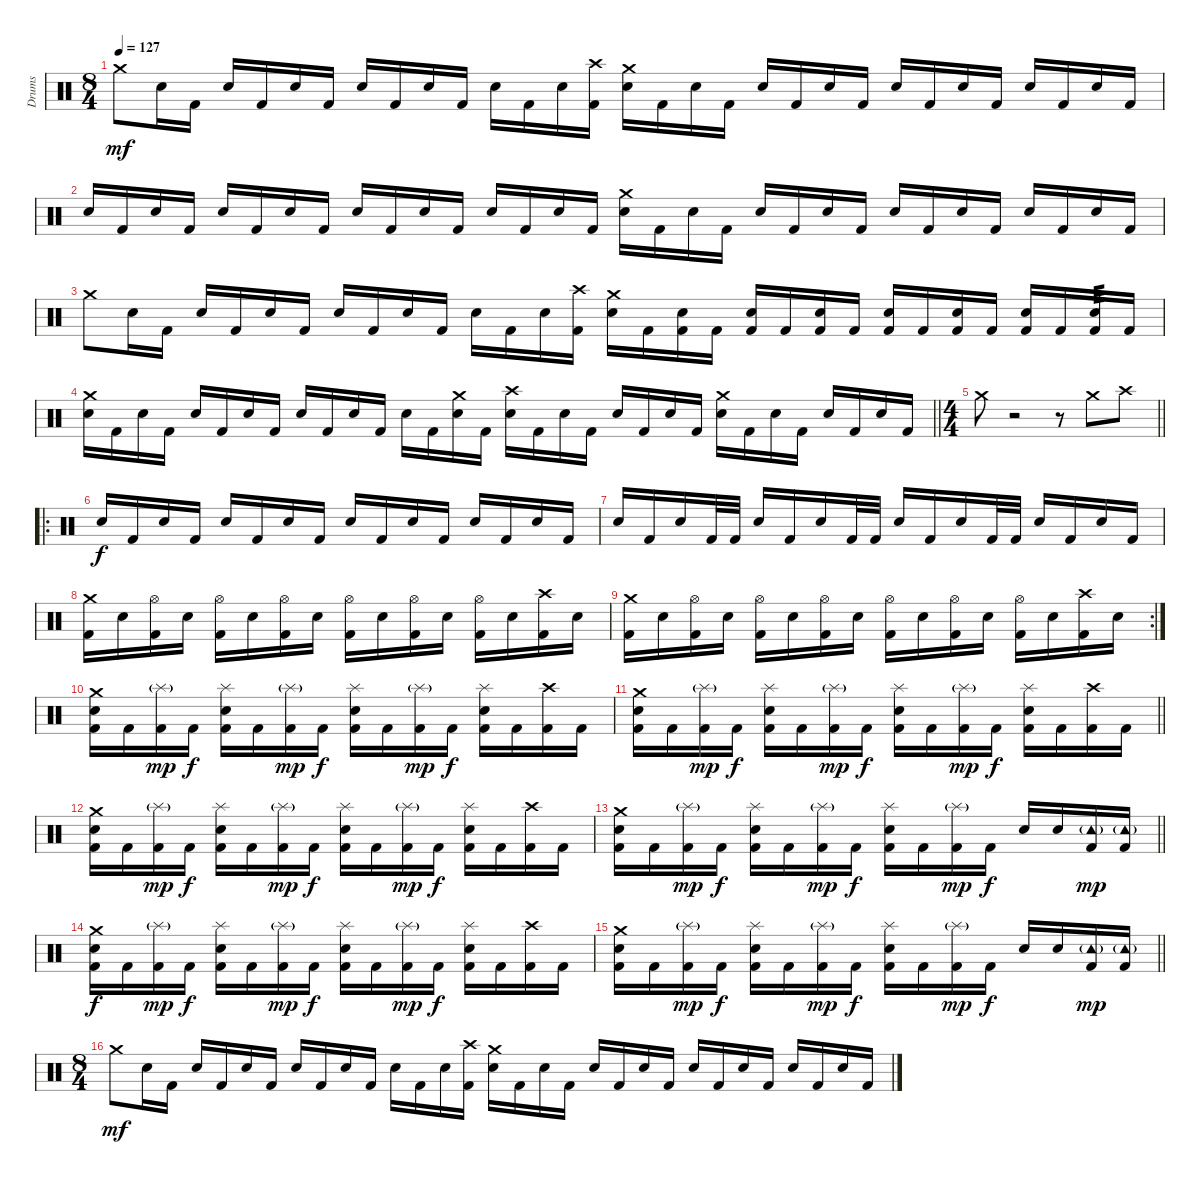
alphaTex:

\track ("Drums" "Drums") {instrument percussion}
\staff {score}
\articulation defaults
\ts (8 4)
\tempo 127
\clef neutral
\ks c "Crash medium (hit)".8{dy mf} "Electric Snare (hit)".16 "Kick (hit) 2".16 "Electric Snare (hit)".16 "Kick (hit) 2".16 "Electric Snare (hit)".16 "Kick (hit) 2".16 "Electric Snare (hit)".16 "Kick (hit) 2".16 "Electric Snare (hit)".16 "Kick (hit) 2".16 "Electric Snare (hit)".16 "Kick (hit) 2".16 "Electric Snare (hit)".16
("Crash high (hit)" "Kick (hit) 2").16 ("Crash medium (hit)" "Electric Snare (hit)").16 "Kick (hit) 2".16 "Electric Snare (hit)".16 "Kick (hit) 2".16 "Electric Snare (hit)".16 "Kick (hit) 2".16 "Electric Snare (hit)".16 "Kick (hit) 2".16 "Electric Snare (hit)".16 "Kick (hit) 2".16 "Electric Snare (hit)".16 "Kick (hit) 2".16 "Electric Snare (hit)".16 "Kick (hit) 2".16 "Electric Snare (hit)".16 "Kick (hit) 2".16 |
"Electric Snare (hit)".16 "Kick (hit) 2".16 "Electric Snare (hit)".16 "Kick (hit) 2".16 "Electric Snare (hit)".16 "Kick (hit) 2".16 "Electric Snare (hit)".16 "Kick (hit) 2".16 "Electric Snare (hit)".16 "Kick (hit) 2".16 "Electric Snare (hit)".16 "Kick (hit) 2".16 "Electric Snare (hit)".16 "Kick (hit) 2".16 "Electric Snare (hit)".16 "Kick (hit) 2".16 ("Crash medium (hit)" "Electric Snare (hit)").16 "Kick (hit) 2".16 "Electric Snare (hit)".16 "Kick (hit) 2".16 "Electric Snare (hit)".16 "Kick (hit) 2".16 "Electric Snare (hit)".16 "Kick (hit) 2".16 "Electric Snare (hit)".16 "Kick (hit) 2".16 "Electric Snare (hit)".16 "Kick (hit) 2".16 "Electric Snare (hit)".16 "Kick (hit) 2".16 "Electric Snare (hit)".16 "Kick (hit) 2".16 |
"Crash medium (hit)".8 "Electric Snare (hit)".16 "Kick (hit) 2".16 "Electric Snare (hit)".16 "Kick (hit) 2".16 "Electric Snare (hit)".16 "Kick (hit) 2".16 "Electric Snare (hit)".16 "Kick (hit) 2".16 "Electric Snare (hit)".16 "Kick (hit) 2".16 "Electric Snare (hit)".16 "Kick (hit) 2".16 "Electric Snare (hit)".16 ("Crash high (hit)" "Kick (hit) 2").16 ("Crash medium (hit)" "Electric Snare (hit)").16 "Kick (hit) 2".16 ("Electric Snare (hit)" "Kick (hit) 2").16 "Kick (hit) 2".16 ("Electric Snare (hit)" "Kick (hit) 2").16 "Kick (hit) 2".16 ("Electric Snare (hit)" "Kick (hit) 2").16 "Kick (hit) 2".16 ("Electric Snare (hit)" "Kick (hit) 2").16 "Kick (hit) 2".16 ("Electric Snare (hit)" "Kick (hit) 2").16 "Kick (hit) 2".16 ("Electric Snare (hit)" "Kick (hit) 2").16 "Kick (hit) 2".16 ("Electric Snare (hit)" "Kick (hit) 2").16{tp 3} "Kick (hit) 2".16 |
\barLineRight lightlight
("Crash medium (hit)" "Electric Snare (hit)").16 "Kick (hit) 2".16 "Electric Snare (hit)".16 "Kick (hit) 2".16 "Electric Snare (hit)".16 "Kick (hit) 2".16 "Electric Snare (hit)".16 "Kick (hit) 2".16 "Electric Snare (hit)".16 "Kick (hit) 2".16 "Electric Snare (hit)".16 "Kick (hit) 2".16 "Electric Snare (hit)".16 "Kick (hit) 2".16 ("Crash medium (hit)" "Electric Snare (hit)").16 "Kick (hit) 2".16 ("Crash high (hit)" "Electric Snare (hit)").16 "Kick (hit) 2".16 "Electric Snare (hit)".16 "Kick (hit) 2".16 "Electric Snare (hit)".16 "Kick (hit) 2".16 "Electric Snare (hit)".16 "Kick (hit) 2".16 ("Crash medium (hit)" "Electric Snare (hit)").16 "Kick (hit) 2".16 "Electric Snare (hit)".16 "Kick (hit) 2".16 "Electric Snare (hit)".16 "Kick (hit) 2".16 "Electric Snare (hit)".16 "Kick (hit) 2".16 |
\ts (4 4)
\barLineRight lightlight "Crash medium (hit)".8
r.2 r.8 "Crash medium (hit)".8 "Crash high (hit)".8 |
\ro "Electric Snare (hit)".16{dy f} "Kick (hit) 2".16 "Electric Snare (hit)".16 "Kick (hit) 2".16 "Electric Snare (hit)".16 "Kick (hit) 2".16 "Electric Snare (hit)".16 "Kick (hit) 2".16 "Electric Snare (hit)".16 "Kick (hit) 2".16 "Electric Snare (hit)".16 "Kick (hit) 2".16 "Electric Snare (hit)".16 "Kick (hit) 2".16 "Electric Snare (hit)".16 "Kick (hit) 2".16
|
"Electric Snare (hit)".16 "Kick (hit) 2".16 "Electric Snare (hit)".16 "Kick (hit) 2".32 "Kick (hit) 2".32 "Electric Snare (hit)".16 "Kick (hit) 2".16 "Electric Snare (hit)".16 "Kick (hit) 2".32 "Kick (hit) 2".32 "Electric Snare (hit)".16 "Kick (hit) 2".16 "Electric Snare (hit)".16 "Kick (hit) 2".32 "Kick (hit) 2".32 "Electric Snare (hit)".16 "Kick (hit) 2".16 "Electric Snare (hit)".16 "Kick (hit) 2".16 |
("Crash medium (hit)" "Kick (hit) 2").16 "Electric Snare (hit)".16 ("Hi-Hat (open)" "Kick (hit) 2").16 "Electric Snare (hit)".16 ("Hi-Hat (open)" "Kick (hit) 2").16 "Electric Snare (hit)".16 ("Hi-Hat (open)" "Kick (hit) 2").16 "Electric Snare (hit)".16 ("Hi-Hat (open)" "Kick (hit) 2").16 "Electric Snare (hit)".16 ("Hi-Hat (open)" "Kick (hit) 2").16 "Electric Snare (hit)".16 ("Hi-Hat (open)" "Kick (hit) 2").16 "Electric Snare (hit)".16 ("Crash high (hit)" "Kick (hit) 2").16 "Electric Snare (hit)".16 |
\rc 2
("Crash medium (hit)" "Kick (hit) 2").16 "Electric Snare (hit)".16 ("Hi-Hat (open)" "Kick (hit) 2").16 "Electric Snare (hit)".16 ("Hi-Hat (open)" "Kick (hit) 2").16 "Electric Snare (hit)".16 ("Hi-Hat (open)" "Kick (hit) 2").16 "Electric Snare (hit)".16 ("Hi-Hat (open)" "Kick (hit) 2").16 "Electric Snare (hit)".16 ("Hi-Hat (open)" "Kick (hit) 2").16 "Electric Snare (hit)".16 ("Hi-Hat (open)" "Kick (hit) 2").16 "Electric Snare (hit)".16 ("Crash high (hit)" "Kick (hit) 2").16 "Electric Snare (hit)".16 |
("Crash medium (hit)" "Electric Snare (hit)" "Kick (hit) 2").16 "Kick (hit) 2".16 ("Splash (hit)"{g} "Kick (hit) 2").16{dy mp} "Kick (hit) 2".16{dy f} ("Splash (hit)" "Electric Snare (hit)" "Kick (hit) 2").16 "Kick (hit) 2".16 ("Splash (hit)"{g} "Kick (hit) 2").16{dy mp} "Kick (hit) 2".16{dy f} ("Splash (hit)" "Electric Snare (hit)" "Kick (hit) 2").16 "Kick (hit) 2".16 ("Splash (hit)"{g} "Kick (hit) 2").16{dy mp} "Kick (hit) 2".16{dy f} ("Splash (hit)" "Electric Snare (hit)" "Kick (hit) 2").16 "Kick (hit) 2".16 ("Crash high (hit)" "Kick (hit) 2").16 "Kick (hit) 2".16 |
\barLineRight lightlight
("Crash medium (hit)" "Electric Snare (hit)" "Kick (hit) 2").16 "Kick (hit) 2".16 ("Splash (hit)"{g} "Kick (hit) 2").16{dy mp} "Kick (hit) 2".16{dy f} ("Splash (hit)" "Electric Snare (hit)" "Kick (hit) 2").16 "Kick (hit) 2".16 ("Splash (hit)"{g} "Kick (hit) 2").16{dy mp} "Kick (hit) 2".16{dy f} ("Splash (hit)" "Electric Snare (hit)" "Kick (hit) 2").16 "Kick (hit) 2".16 ("Splash (hit)"{g} "Kick (hit) 2").16{dy mp} "Kick (hit) 2".16{dy f} ("Splash (hit)" "Electric Snare (hit)" "Kick (hit) 2").16 "Kick (hit) 2".16 ("Crash high (hit)" "Kick (hit) 2").16 "Kick (hit) 2".16 |
("Crash medium (hit)" "Electric Snare (hit)" "Kick (hit) 2").16 "Kick (hit) 2".16 ("Splash (hit)"{g} "Kick (hit) 2").16{dy mp} "Kick (hit) 2".16{dy f} ("Splash (hit)" "Electric Snare (hit)" "Kick (hit) 2").16 "Kick (hit) 2".16 ("Splash (hit)"{g} "Kick (hit) 2").16{dy mp} "Kick (hit) 2".16{dy f} ("Splash (hit)" "Electric Snare (hit)" "Kick (hit) 2").16 "Kick (hit) 2".16 ("Splash (hit)"{g} "Kick (hit) 2").16{dy mp} "Kick (hit) 2".16{dy f} ("Splash (hit)" "Electric Snare (hit)" "Kick (hit) 2").16 "Kick (hit) 2".16 ("Crash high (hit)" "Kick (hit) 2").16 "Kick (hit) 2".16 |
\barLineRight lightlight
("Crash medium (hit)" "Electric Snare (hit)" "Kick (hit) 2").16 "Kick (hit) 2".16 ("Splash (hit)"{g} "Kick (hit) 2").16{dy mp} "Kick (hit) 2".16{dy f} ("Splash (hit)" "Electric Snare (hit)" "Kick (hit) 2").16 "Kick (hit) 2".16 ("Splash (hit)"{g} "Kick (hit) 2").16{dy mp} "Kick (hit) 2".16{dy f} ("Splash (hit)" "Electric Snare (hit)" "Kick (hit) 2").16 "Kick (hit) 2".16 ("Splash (hit)"{g} "Kick (hit) 2").16{dy mp} "Kick (hit) 2".16{dy f} "Electric Snare (hit)".16 "Electric Snare (hit)".16 ("Tambourine (hit)"{g} "Kick (hit) 2").16{dy mp} ("Tambourine (hit)"{g} "Kick (hit) 2").16 |
("Crash medium (hit)" "Electric Snare (hit)" "Kick (hit) 2").16{dy f} "Kick (hit) 2".16 ("Splash (hit)"{g} "Kick (hit) 2").16{dy mp} "Kick (hit) 2".16{dy f} ("Splash (hit)" "Electric Snare (hit)" "Kick (hit) 2").16 "Kick (hit) 2".16 ("Splash (hit)"{g} "Kick (hit) 2").16{dy mp} "Kick (hit) 2".16{dy f} ("Splash (hit)" "Electric Snare (hit)" "Kick (hit) 2").16 "Kick (hit) 2".16 ("Splash (hit)"{g} "Kick (hit) 2").16{dy mp} "Kick (hit) 2".16{dy f} ("Splash (hit)" "Electric Snare (hit)" "Kick (hit) 2").16 "Kick (hit) 2".16 ("Crash high (hit)" "Kick (hit) 2").16 "Kick (hit) 2".16 |
\barLineRight lightlight
("Crash medium (hit)" "Electric Snare (hit)" "Kick (hit) 2").16 "Kick (hit) 2".16 ("Splash (hit)"{g} "Kick (hit) 2").16{dy mp} "Kick (hit) 2".16{dy f} ("Splash (hit)" "Electric Snare (hit)" "Kick (hit) 2").16 "Kick (hit) 2".16 ("Splash (hit)"{g} "Kick (hit) 2").16{dy mp} "Kick (hit) 2".16{dy f} ("Splash (hit)" "Electric Snare (hit)" "Kick (hit) 2").16 "Kick (hit) 2".16 ("Splash (hit)"{g} "Kick (hit) 2").16{dy mp} "Kick (hit) 2".16{dy f} "Electric Snare (hit)".16 "Electric Snare (hit)".16 ("Tambourine (hit)"{g} "Kick (hit) 2").16{dy mp} ("Tambourine (hit)"{g} "Kick (hit) 2").16 |
\ts (8 4)
"Crash medium (hit)".8{dy mf} "Electric Snare (hit)".16 "Kick (hit) 2".16 "Electric Snare (hit)".16 "Kick (hit) 2".16 "Electric Snare (hit)".16 "Kick (hit) 2".16 "Electric Snare (hit)".16 "Kick (hit) 2".16 "Electric Snare (hit)".16 "Kick (hit) 2".16 "Electric Snare (hit)".16 "Kick (hit) 2".16 "Electric Snare (hit)".16 ("Crash high (hit)" "Kick (hit) 2").16 ("Crash medium (hit)" "Electric Snare (hit)").16 "Kick (hit) 2".16 "Electric Snare (hit)".16 "Kick (hit) 2".16 "Electric Snare (hit)".16 "Kick (hit) 2".16 "Electric Snare (hit)".16 "Kick (hit) 2".16 "Electric Snare (hit)".16 "Kick (hit) 2".16 "Electric Snare (hit)".16 "Kick (hit) 2".16 "Electric Snare (hit)".16 "Kick (hit) 2".16 "Electric Snare (hit)".16 "Kick (hit) 2".16
